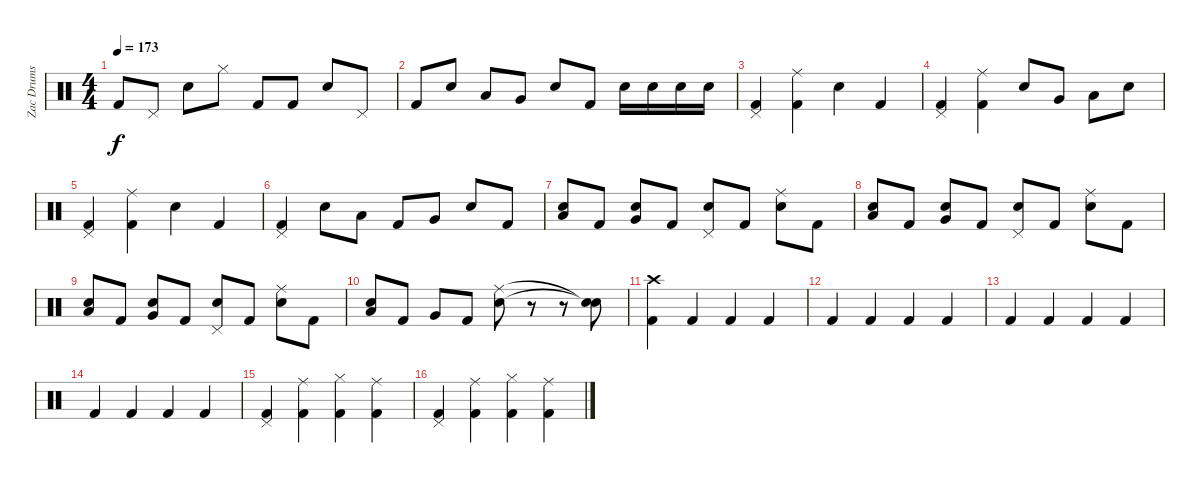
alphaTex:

\track ("Zac Drums" "Zac Drums") {instrument percussion}
\staff {score}
\articulation defaults
\ts (4 4)
\tempo 173
\clef neutral
\ks c "Kick (hit) 2".8{dy f} "Pedal Hi-Hat (hit)".8 "Electric Snare (hit)".8 "Hi-Hat (closed)".8 "Kick (hit) 2".8 "Kick (hit) 2".8 "Electric Snare (hit)".8 "Pedal Hi-Hat (hit)".8
|
"Kick (hit) 2".8 "Electric Snare (hit)".8 "Low Tom (hit)".8 "Very Low Tom (hit)".8 "Electric Snare (hit)".8 "Kick (hit) 2".8 "Electric Snare (hit)".16 "Electric Snare (hit)".16 "Electric Snare (hit)".16 "Electric Snare (hit)".16 |
("Pedal Hi-Hat (hit)" "Kick (hit) 2").4 ("Ride (middle)" "Kick (hit) 2").4 "Electric Snare (hit)".4 "Kick (hit) 2".4 |
("Pedal Hi-Hat (hit)" "Kick (hit) 2").4 ("Ride (middle)" "Kick (hit) 2").4 "Electric Snare (hit)".8 "Very Low Tom (hit)".8 "Low Tom (hit)".8 "Electric Snare (hit)".8 |
("Pedal Hi-Hat (hit)" "Kick (hit) 2").4 ("Ride (middle)" "Kick (hit) 2").4 "Electric Snare (hit)".4 "Kick (hit) 2".4 |
("Pedal Hi-Hat (hit)" "Kick (hit) 2").4 "Electric Snare (hit)".8 "Low Tom (hit)".8 "Kick (hit) 2".8 "Very Low Tom (hit)".8 "Electric Snare (hit)".8 "Kick (hit) 2".8 |
("Low Tom (hit)" "Electric Snare (hit)").8 "Kick (hit) 2".8 ("Very Low Tom (hit)" "Electric Snare (hit)").8 "Kick (hit) 2".8 ("Pedal Hi-Hat (hit)" "Electric Snare (hit)").8 "Kick (hit) 2".8 ("Ride (middle)" "Electric Snare (hit)").8 "Kick (hit) 2".8 |
("Low Tom (hit)" "Electric Snare (hit)").8 "Kick (hit) 2".8 ("Very Low Tom (hit)" "Electric Snare (hit)").8 "Kick (hit) 2".8 ("Pedal Hi-Hat (hit)" "Electric Snare (hit)").8 "Kick (hit) 2".8 ("Ride (middle)" "Electric Snare (hit)").8 "Kick (hit) 2".8 |
("Low Tom (hit)" "Electric Snare (hit)").8 "Kick (hit) 2".8 ("Very Low Tom (hit)" "Electric Snare (hit)").8 "Kick (hit) 2".8 ("Pedal Hi-Hat (hit)" "Electric Snare (hit)").8 "Kick (hit) 2".8 ("Ride (middle)" "Electric Snare (hit)").8 "Kick (hit) 2".8 |
("Low Tom (hit)" "Electric Snare (hit)").8 "Kick (hit) 2".8 "Very Low Tom (hit)".8 "Kick (hit) 2".8 ("Ride (middle)" "Electric Snare (hit)").8 r.8 r.8 ("Snare (hit)"{t} "Snare (hit)"{t}).8 |
("Crash high (hit)" "Kick (hit) 2").4 "Kick (hit) 2".4 "Kick (hit) 2".4 "Kick (hit) 2".4 |
"Kick (hit) 2".4 "Kick (hit) 2".4 "Kick (hit) 2".4 "Kick (hit) 2".4 |
"Kick (hit) 2".4 "Kick (hit) 2".4 "Kick (hit) 2".4 "Kick (hit) 2".4 |
"Kick (hit) 2".4 "Kick (hit) 2".4 "Kick (hit) 2".4 "Kick (hit) 2".4 |
("Pedal Hi-Hat (hit)" "Kick (hit) 2").4 ("Ride (middle)" "Kick (hit) 2").4 ("Hi-Hat (closed)" "Kick (hit) 2").4 ("Ride (middle)" "Kick (hit) 2").4 |
("Pedal Hi-Hat (hit)" "Kick (hit) 2").4 ("Ride (middle)" "Kick (hit) 2").4 ("Hi-Hat (closed)" "Kick (hit) 2").4 ("Ride (middle)" "Kick (hit) 2").4
